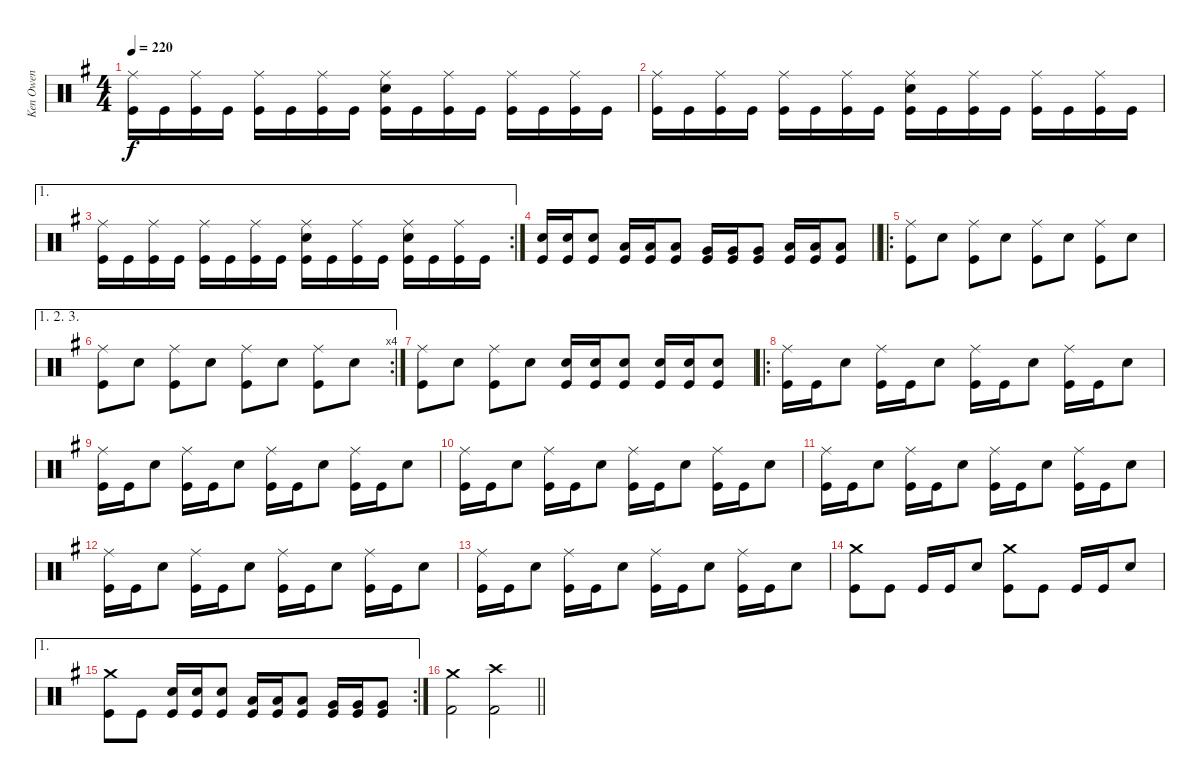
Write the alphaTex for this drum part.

\track ("Ken Owen" "Ken Owen") {instrument percussion}
\staff {score}
\articulation defaults
\ts (4 4)
\tempo 220
\clef neutral
\ks g
("Ride (middle)" "Kick (hit)").16{dy f} "Kick (hit)".16 ("Ride (middle)" "Kick (hit)").16 "Kick (hit)".16 ("Ride (middle)" "Kick (hit)").16 "Kick (hit)".16 ("Ride (middle)" "Kick (hit)").16 "Kick (hit)".16 ("Ride (middle)" "Snare (hit) 2" "Kick (hit)").16 "Kick (hit)".16 ("Ride (middle)" "Kick (hit)").16 "Kick (hit)".16 ("Ride (middle)" "Kick (hit)").16 "Kick (hit)".16 ("Ride (middle)" "Kick (hit)").16 "Kick (hit)".16 |
("Ride (middle)" "Kick (hit)").16 "Kick (hit)".16 ("Ride (middle)" "Kick (hit)").16 "Kick (hit)".16 ("Ride (middle)" "Kick (hit)").16 "Kick (hit)".16 ("Ride (middle)" "Kick (hit)").16 "Kick (hit)".16 ("Ride (middle)" "Snare (hit) 2" "Kick (hit)").16 "Kick (hit)".16 ("Ride (middle)" "Kick (hit)").16 "Kick (hit)".16 ("Ride (middle)" "Kick (hit)").16 "Kick (hit)".16 ("Ride (middle)" "Kick (hit)").16 "Kick (hit)".16 |
\ae 1
\rc 2
("Ride (middle)" "Kick (hit)").16 "Kick (hit)".16 ("Ride (middle)" "Kick (hit)").16 "Kick (hit)".16 ("Ride (middle)" "Kick (hit)").16 "Kick (hit)".16 ("Ride (middle)" "Kick (hit)").16 "Kick (hit)".16 ("Ride (middle)" "Snare (hit) 2" "Kick (hit)").16 "Kick (hit)".16 ("Ride (middle)" "Kick (hit)").16 "Kick (hit)".16 ("Ride (middle)" "Snare (hit) 2" "Kick (hit)").16 "Kick (hit)".16 ("Ride (middle)" "Kick (hit)").16 "Kick (hit)".16 |
\barLineRight lightlight
("Snare (hit) 2" "Kick (hit)").16 ("Snare (hit) 2" "Kick (hit)").16 ("Snare (hit) 2" "Kick (hit)").8 ("Low Tom (hit)" "Kick (hit)").16 ("Low Tom (hit)" "Kick (hit)").16 ("Low Tom (hit)" "Kick (hit)").8 ("Very Low Tom (hit)" "Kick (hit)").16 ("Very Low Tom (hit)" "Kick (hit)").16 ("Very Low Tom (hit)" "Kick (hit)").8 ("Low Floor Tom (hit)" "Kick (hit)").16 ("Low Floor Tom (hit)" "Kick (hit)").16 ("Low Floor Tom (hit)" "Kick (hit)").8 |
\ro
("Ride (middle)" "Kick (hit)").8 "Snare (hit) 2".8 ("Ride (middle)" "Kick (hit)").8 "Snare (hit) 2".8 ("Ride (middle)" "Kick (hit)").8 "Snare (hit) 2".8 ("Ride (middle)" "Kick (hit)").8 "Snare (hit) 2".8 |
\ae (1 2 3)
\rc 4
("Ride (middle)" "Kick (hit)").8 "Snare (hit) 2".8 ("Ride (middle)" "Kick (hit)").8 "Snare (hit) 2".8 ("Ride (middle)" "Kick (hit)").8 "Snare (hit) 2".8 ("Ride (middle)" "Kick (hit)").8 "Snare (hit) 2".8 |
("Ride (middle)" "Kick (hit)").8 "Snare (hit) 2".8 ("Ride (middle)" "Kick (hit)").8 "Snare (hit) 2".8 ("Snare (hit) 2" "Kick (hit)").16 ("Snare (hit) 2" "Kick (hit)").16 ("Snare (hit) 2" "Kick (hit)").8 ("Snare (hit) 2" "Kick (hit)").16 ("Snare (hit) 2" "Kick (hit)").16 ("Snare (hit) 2" "Kick (hit)").8 |
\ro
("Ride (middle)" "Kick (hit)").16 "Kick (hit)".16 "Snare (hit) 2".8 ("Ride (middle)" "Kick (hit)").16 "Kick (hit)".16 "Snare (hit) 2".8 ("Ride (middle)" "Kick (hit)").16 "Kick (hit)".16 "Snare (hit) 2".8 ("Ride (middle)" "Kick (hit)").16 "Kick (hit)".16 "Snare (hit) 2".8 |
("Ride (middle)" "Kick (hit)").16 "Kick (hit)".16 "Snare (hit) 2".8 ("Ride (middle)" "Kick (hit)").16 "Kick (hit)".16 "Snare (hit) 2".8 ("Ride (middle)" "Kick (hit)").16 "Kick (hit)".16 "Snare (hit) 2".8 ("Ride (middle)" "Kick (hit)").16 "Kick (hit)".16 "Snare (hit) 2".8 |
("Ride (middle)" "Kick (hit)").16 "Kick (hit)".16 "Snare (hit) 2".8 ("Ride (middle)" "Kick (hit)").16 "Kick (hit)".16 "Snare (hit) 2".8 ("Ride (middle)" "Kick (hit)").16 "Kick (hit)".16 "Snare (hit) 2".8 ("Ride (middle)" "Kick (hit)").16 "Kick (hit)".16 "Snare (hit) 2".8 |
("Ride (middle)" "Kick (hit)").16 "Kick (hit)".16 "Snare (hit) 2".8 ("Ride (middle)" "Kick (hit)").16 "Kick (hit)".16 "Snare (hit) 2".8 ("Ride (middle)" "Kick (hit)").16 "Kick (hit)".16 "Snare (hit) 2".8 ("Ride (middle)" "Kick (hit)").16 "Kick (hit)".16 "Snare (hit) 2".8 |
("Ride (middle)" "Kick (hit)").16 "Kick (hit)".16 "Snare (hit) 2".8 ("Ride (middle)" "Kick (hit)").16 "Kick (hit)".16 "Snare (hit) 2".8 ("Ride (middle)" "Kick (hit)").16 "Kick (hit)".16 "Snare (hit) 2".8 ("Ride (middle)" "Kick (hit)").16 "Kick (hit)".16 "Snare (hit) 2".8 |
("Ride (middle)" "Kick (hit)").16 "Kick (hit)".16 "Snare (hit) 2".8 ("Ride (middle)" "Kick (hit)").16 "Kick (hit)".16 "Snare (hit) 2".8 ("Ride (middle)" "Kick (hit)").16 "Kick (hit)".16 "Snare (hit) 2".8 ("Ride (middle)" "Kick (hit)").16 "Kick (hit)".16 "Snare (hit) 2".8 |
("Crash medium (hit)" "Kick (hit)").8 "Kick (hit)".8 "Kick (hit)".16 "Kick (hit)".16 "Snare (hit) 2".8 ("Crash medium (hit)" "Kick (hit)").8 "Kick (hit)".8 "Kick (hit)".16 "Kick (hit)".16 "Snare (hit) 2".8 |
\ae 1
\rc 2
("Crash medium (hit)" "Kick (hit)").8 "Kick (hit)".8 ("Snare (hit) 2" "Kick (hit)").16 ("Snare (hit) 2" "Kick (hit)").16 ("Snare (hit) 2" "Kick (hit)").8 ("Low Tom (hit)" "Kick (hit)").16 ("Low Tom (hit)" "Kick (hit)").16 ("Low Tom (hit)" "Kick (hit)").8 ("Very Low Tom (hit)" "Kick (hit)").16 ("Very Low Tom (hit)" "Kick (hit)").16 ("Very Low Tom (hit)" "Kick (hit)").8 |
\barLineRight lightlight
("Crash medium (hit)" "Kick (hit) 2").2 ("Crash high (hit)" "Kick (hit) 2").2
